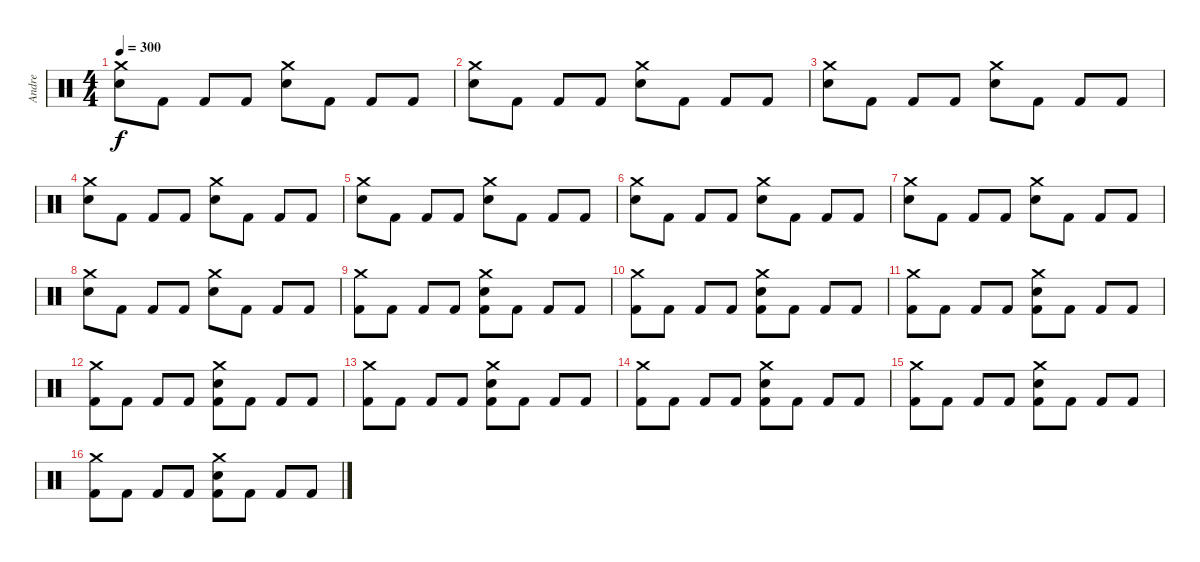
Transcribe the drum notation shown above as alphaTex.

\track ("Andre" "Andre") {instrument percussion}
\staff {score}
\articulation defaults
\ts (4 4)
\tempo 300
\clef neutral
\ks c
("Crash medium (hit)" "Electric Snare (hit)").8{dy f} "Kick (hit) 2".8 "Kick (hit) 2".8 "Kick (hit) 2".8 ("Crash medium (hit)" "Electric Snare (hit)").8 "Kick (hit) 2".8 "Kick (hit) 2".8 "Kick (hit) 2".8 |
("Crash medium (hit)" "Electric Snare (hit)").8 "Kick (hit) 2".8 "Kick (hit) 2".8 "Kick (hit) 2".8 ("Crash medium (hit)" "Electric Snare (hit)").8 "Kick (hit) 2".8 "Kick (hit) 2".8 "Kick (hit) 2".8 |
("Crash medium (hit)" "Electric Snare (hit)").8 "Kick (hit) 2".8 "Kick (hit) 2".8 "Kick (hit) 2".8 ("Crash medium (hit)" "Electric Snare (hit)").8 "Kick (hit) 2".8 "Kick (hit) 2".8 "Kick (hit) 2".8 |
("Crash medium (hit)" "Electric Snare (hit)").8 "Kick (hit) 2".8 "Kick (hit) 2".8 "Kick (hit) 2".8 ("Crash medium (hit)" "Electric Snare (hit)").8 "Kick (hit) 2".8 "Kick (hit) 2".8 "Kick (hit) 2".8 |
("Crash medium (hit)" "Electric Snare (hit)").8 "Kick (hit) 2".8 "Kick (hit) 2".8 "Kick (hit) 2".8 ("Crash medium (hit)" "Electric Snare (hit)").8 "Kick (hit) 2".8 "Kick (hit) 2".8 "Kick (hit) 2".8 |
("Crash medium (hit)" "Electric Snare (hit)").8 "Kick (hit) 2".8 "Kick (hit) 2".8 "Kick (hit) 2".8 ("Crash medium (hit)" "Electric Snare (hit)").8 "Kick (hit) 2".8 "Kick (hit) 2".8 "Kick (hit) 2".8 |
("Crash medium (hit)" "Electric Snare (hit)").8 "Kick (hit) 2".8 "Kick (hit) 2".8 "Kick (hit) 2".8 ("Crash medium (hit)" "Electric Snare (hit)").8 "Kick (hit) 2".8 "Kick (hit) 2".8 "Kick (hit) 2".8 |
("Crash medium (hit)" "Electric Snare (hit)").8 "Kick (hit) 2".8 "Kick (hit) 2".8 "Kick (hit) 2".8 ("Crash medium (hit)" "Electric Snare (hit)").8 "Kick (hit) 2".8 "Kick (hit) 2".8 "Kick (hit) 2".8 |
("Crash medium (hit)" "Kick (hit) 2").8 "Kick (hit) 2".8 "Kick (hit) 2".8 "Kick (hit) 2".8 ("Crash medium (hit)" "Electric Snare (hit)" "Kick (hit) 2").8 "Kick (hit) 2".8 "Kick (hit) 2".8 "Kick (hit) 2".8 |
("Crash medium (hit)" "Kick (hit) 2").8 "Kick (hit) 2".8 "Kick (hit) 2".8 "Kick (hit) 2".8 ("Crash medium (hit)" "Electric Snare (hit)" "Kick (hit) 2").8 "Kick (hit) 2".8 "Kick (hit) 2".8 "Kick (hit) 2".8 |
("Crash medium (hit)" "Kick (hit) 2").8 "Kick (hit) 2".8 "Kick (hit) 2".8 "Kick (hit) 2".8 ("Crash medium (hit)" "Electric Snare (hit)" "Kick (hit) 2").8 "Kick (hit) 2".8 "Kick (hit) 2".8 "Kick (hit) 2".8 |
("Crash medium (hit)" "Kick (hit) 2").8 "Kick (hit) 2".8 "Kick (hit) 2".8 "Kick (hit) 2".8 ("Crash medium (hit)" "Electric Snare (hit)" "Kick (hit) 2").8 "Kick (hit) 2".8 "Kick (hit) 2".8 "Kick (hit) 2".8 |
("Crash medium (hit)" "Kick (hit) 2").8 "Kick (hit) 2".8 "Kick (hit) 2".8 "Kick (hit) 2".8 ("Crash medium (hit)" "Electric Snare (hit)" "Kick (hit) 2").8 "Kick (hit) 2".8 "Kick (hit) 2".8 "Kick (hit) 2".8 |
("Crash medium (hit)" "Kick (hit) 2").8 "Kick (hit) 2".8 "Kick (hit) 2".8 "Kick (hit) 2".8 ("Crash medium (hit)" "Electric Snare (hit)" "Kick (hit) 2").8 "Kick (hit) 2".8 "Kick (hit) 2".8 "Kick (hit) 2".8 |
("Crash medium (hit)" "Kick (hit) 2").8 "Kick (hit) 2".8 "Kick (hit) 2".8 "Kick (hit) 2".8 ("Crash medium (hit)" "Electric Snare (hit)" "Kick (hit) 2").8 "Kick (hit) 2".8 "Kick (hit) 2".8 "Kick (hit) 2".8 |
("Crash medium (hit)" "Kick (hit) 2").8 "Kick (hit) 2".8 "Kick (hit) 2".8 "Kick (hit) 2".8 ("Crash medium (hit)" "Electric Snare (hit)" "Kick (hit) 2").8 "Kick (hit) 2".8 "Kick (hit) 2".8 "Kick (hit) 2".8
